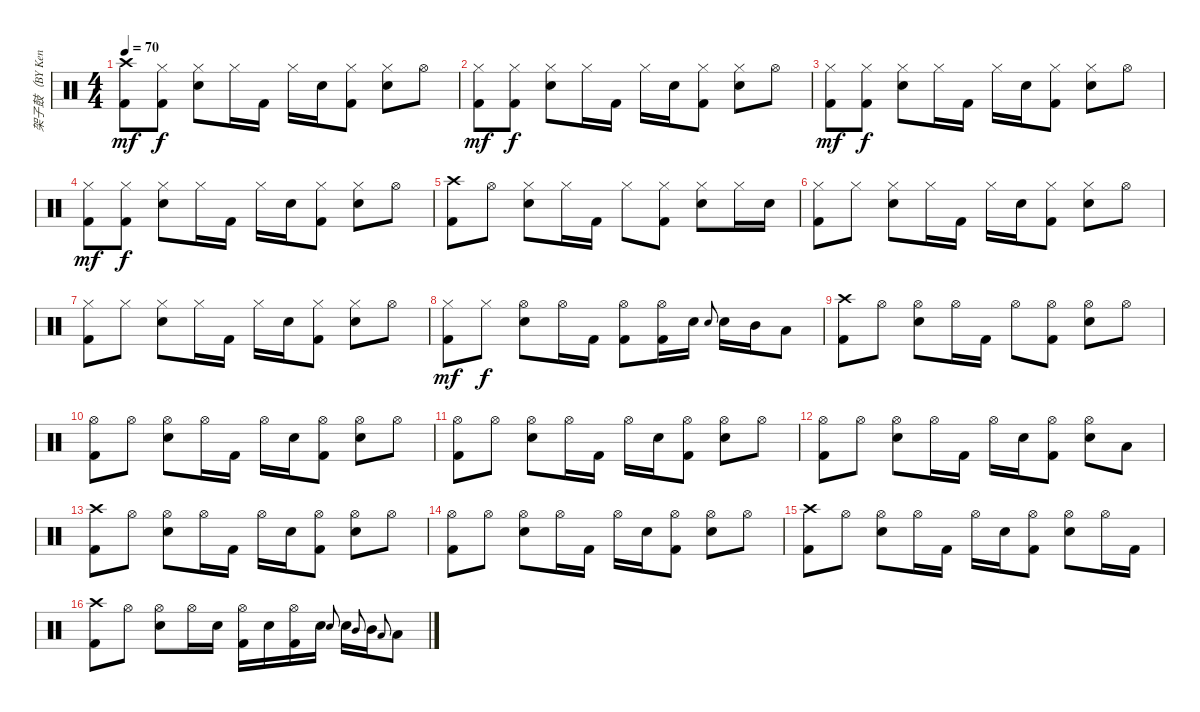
\track ("架子鼓（BY Ken）" "架子鼓（BY Ken") {instrument percussion}
\staff {score}
\articulation defaults
\ts (4 4)
\tempo 70
\clef neutral
\ks c
("Crash high (hit)" "Kick (hit) 2").8{dy mf} ("Hi-Hat (closed)" "Kick (hit) 2").8{dy f} ("Hi-Hat (closed)" "Electric Snare (hit)").8 "Hi-Hat (closed)".16 "Kick (hit) 2".16 "Hi-Hat (closed)".16 "Electric Snare (hit)".16 ("Hi-Hat (closed)" "Kick (hit) 2").8 ("Hi-Hat (closed)" "Electric Snare (hit)").8 "Hi-Hat (open)".8 |
("Hi-Hat (closed)" "Kick (hit) 2").8{dy mf} ("Hi-Hat (closed)" "Kick (hit) 2").8{dy f} ("Hi-Hat (closed)" "Electric Snare (hit)").8 "Hi-Hat (closed)".16 "Kick (hit) 2".16 "Hi-Hat (closed)".16 "Electric Snare (hit)".16 ("Hi-Hat (closed)" "Kick (hit) 2").8 ("Hi-Hat (closed)" "Electric Snare (hit)").8 "Hi-Hat (open)".8 |
("Hi-Hat (closed)" "Kick (hit) 2").8{dy mf} ("Hi-Hat (closed)" "Kick (hit) 2").8{dy f} ("Hi-Hat (closed)" "Electric Snare (hit)").8 "Hi-Hat (closed)".16 "Kick (hit) 2".16 "Hi-Hat (closed)".16 "Electric Snare (hit)".16 ("Hi-Hat (closed)" "Kick (hit) 2").8 ("Hi-Hat (closed)" "Electric Snare (hit)").8 "Hi-Hat (open)".8 |
("Hi-Hat (closed)" "Kick (hit) 2").8{dy mf} ("Hi-Hat (closed)" "Kick (hit) 2").8{dy f} ("Hi-Hat (closed)" "Electric Snare (hit)").8 "Hi-Hat (closed)".16 "Kick (hit) 2".16 "Hi-Hat (closed)".16 "Electric Snare (hit)".16 ("Hi-Hat (closed)" "Kick (hit) 2").8 ("Hi-Hat (closed)" "Electric Snare (hit)").8 "Hi-Hat (open)".8 |
("Crash high (hit)" "Kick (hit) 2").8 "Hi-Hat (open)".8 ("Hi-Hat (closed)" "Electric Snare (hit)").8 "Hi-Hat (closed)".16 "Kick (hit) 2".16 "Hi-Hat (closed)".8 ("Hi-Hat (closed)" "Kick (hit) 2").8 ("Hi-Hat (closed)" "Electric Snare (hit)").8 "Hi-Hat (closed)".16 "Electric Snare (hit)".16 |
("Hi-Hat (closed)" "Kick (hit) 2").8 "Hi-Hat (closed)".8 ("Hi-Hat (closed)" "Electric Snare (hit)").8 "Hi-Hat (closed)".16 "Kick (hit) 2".16 "Hi-Hat (closed)".16 "Electric Snare (hit)".16 ("Hi-Hat (closed)" "Kick (hit) 2").8 ("Hi-Hat (closed)" "Electric Snare (hit)").8 "Hi-Hat (open)".8 |
("Hi-Hat (closed)" "Kick (hit) 2").8 "Hi-Hat (closed)".8 ("Hi-Hat (closed)" "Electric Snare (hit)").8 "Hi-Hat (closed)".16 "Kick (hit) 2".16 "Hi-Hat (closed)".16 "Electric Snare (hit)".16 ("Hi-Hat (closed)" "Kick (hit) 2").8 ("Hi-Hat (closed)" "Electric Snare (hit)").8 "Hi-Hat (open)".8 |
("Hi-Hat (closed)" "Kick (hit) 2").8{dy mf} "Hi-Hat (closed)".8{dy f} ("Hi-Hat (open)" "Electric Snare (hit)").8 "Hi-Hat (open)".16 "Kick (hit) 2".16 ("Hi-Hat (open)" "Kick (hit) 2").8 ("Hi-Hat (open)" "Kick (hit) 2").16 "Electric Snare (hit)".16 "Electric Snare (hit)".8{gr onbeat} "Electric Snare (hit)".16 "Mid Tom (hit)".16 "Low Floor Tom (hit)".8 |
("Crash high (hit)" "Kick (hit) 2").8 "Hi-Hat (open)".8 ("Hi-Hat (open)" "Electric Snare (hit)").8 "Hi-Hat (open)".16 "Kick (hit) 2".16 "Hi-Hat (open)".8 ("Hi-Hat (open)" "Kick (hit) 2").8 ("Hi-Hat (open)" "Electric Snare (hit)").8 "Hi-Hat (open)".8 |
("Hi-Hat (open)" "Kick (hit) 2").8 "Hi-Hat (open)".8 ("Hi-Hat (open)" "Electric Snare (hit)").8 "Hi-Hat (open)".16 "Kick (hit) 2".16 "Hi-Hat (open)".16 "Electric Snare (hit)".16 ("Hi-Hat (open)" "Kick (hit) 2").8 ("Hi-Hat (open)" "Electric Snare (hit)").8 "Hi-Hat (open)".8 |
("Hi-Hat (open)" "Kick (hit) 2").8 "Hi-Hat (open)".8 ("Hi-Hat (open)" "Electric Snare (hit)").8 "Hi-Hat (open)".16 "Kick (hit) 2".16 "Hi-Hat (open)".16 "Electric Snare (hit)".16 ("Hi-Hat (open)" "Kick (hit) 2").8 ("Hi-Hat (open)" "Electric Snare (hit)").8 "Hi-Hat (open)".8 |
("Hi-Hat (open)" "Kick (hit) 2").8 "Hi-Hat (open)".8 ("Hi-Hat (open)" "Electric Snare (hit)").8 "Hi-Hat (open)".16 "Kick (hit) 2".16 "Hi-Hat (open)".16 "Electric Snare (hit)".16 ("Hi-Hat (open)" "Kick (hit) 2").8 ("Hi-Hat (open)" "Electric Snare (hit)").8 "Low Floor Tom (hit)".8 |
("Crash high (hit)" "Kick (hit) 2").8 "Hi-Hat (open)".8 ("Hi-Hat (open)" "Electric Snare (hit)").8 "Hi-Hat (open)".16 "Kick (hit) 2".16 "Hi-Hat (open)".16 "Electric Snare (hit)".16 ("Hi-Hat (open)" "Kick (hit) 2").8 ("Hi-Hat (open)" "Electric Snare (hit)").8 "Hi-Hat (open)".8 |
("Hi-Hat (open)" "Kick (hit) 2").8 "Hi-Hat (open)".8 ("Hi-Hat (open)" "Electric Snare (hit)").8 "Hi-Hat (open)".16 "Kick (hit) 2".16 "Hi-Hat (open)".16 "Electric Snare (hit)".16 ("Hi-Hat (open)" "Kick (hit) 2").8 ("Hi-Hat (open)" "Electric Snare (hit)").8 "Hi-Hat (open)".8 |
("Crash high (hit)" "Kick (hit) 2").8 "Hi-Hat (open)".8 ("Hi-Hat (open)" "Electric Snare (hit)").8 "Hi-Hat (open)".16 "Kick (hit) 2".16 "Hi-Hat (open)".16 "Electric Snare (hit)".16 ("Hi-Hat (open)" "Kick (hit) 2").8 ("Hi-Hat (open)" "Electric Snare (hit)").8 "Hi-Hat (open)".16 "Kick (hit) 2".16 |
("Crash high (hit)" "Kick (hit) 2").8 "Hi-Hat (open)".8 ("Hi-Hat (open)" "Electric Snare (hit)").8 "Hi-Hat (open)".16 "Electric Snare (hit)".16 ("Hi-Hat (open)" "Kick (hit) 2").16 "Electric Snare (hit)".16 ("Hi-Hat (open)" "Kick (hit) 2").16 "Electric Snare (hit)".16 "Electric Snare (hit)".8{gr onbeat} "Electric Snare (hit)".16 "Mid Tom (hit)".8{gr onbeat} "Mid Tom (hit)".16 "Low Floor Tom (hit)".8{gr onbeat} "Low Floor Tom (hit)".8
